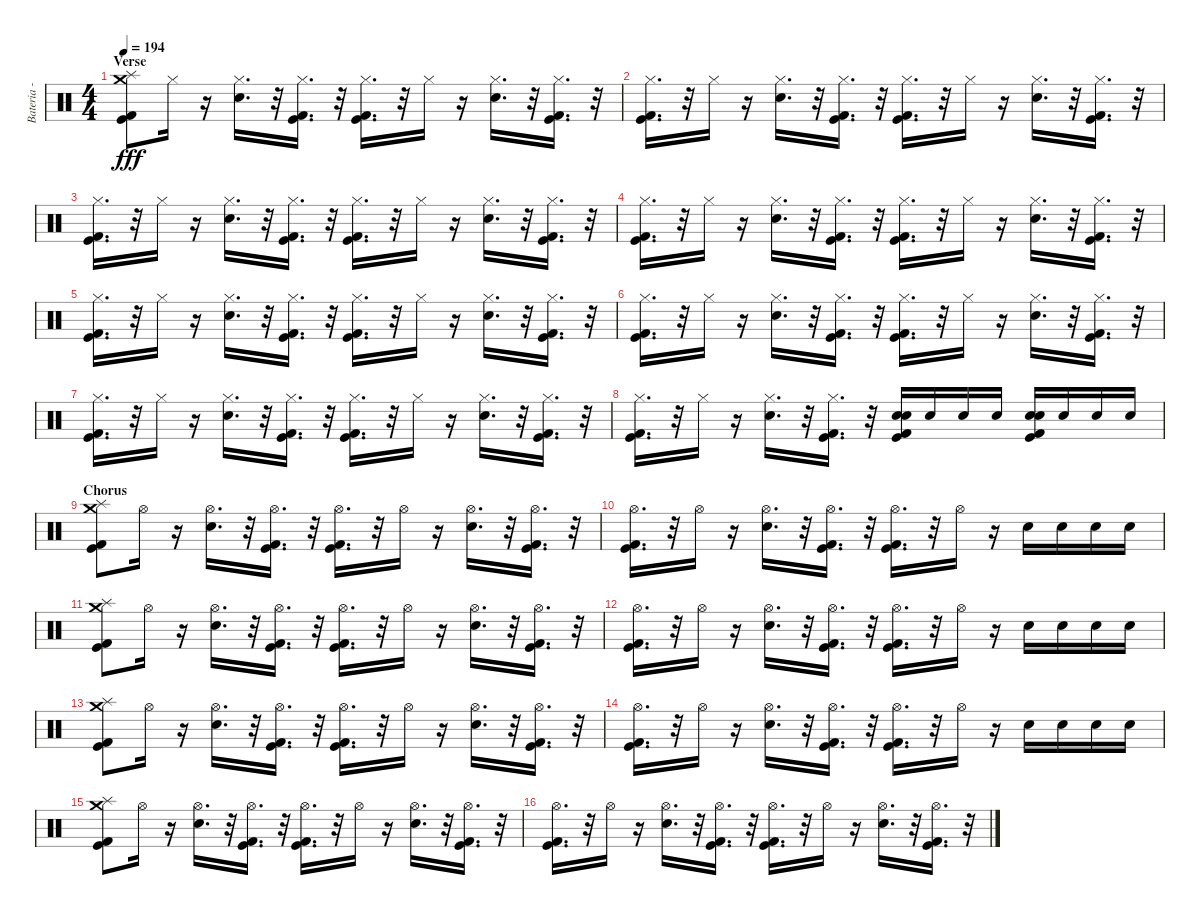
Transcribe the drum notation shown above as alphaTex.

\track ("Bateria - Larzon" "Bateria - ") {instrument percussion}
\staff {score}
\articulation defaults
\ts (4 4)
\section ("" "Verse")
\tempo 194
\clef neutral
\ks c
("Kick (hit)" "Kick (hit) 2" "Splash (hit)" "Crash medium (hit)").8{dy fff} "Hi-Hat (closed)".16 r.16 ("Hi-Hat (closed)" "Electric Snare (hit)").16{d} r.32 ("Hi-Hat (closed)" "Kick (hit)" "Kick (hit) 2").16{d} r.32 ("Kick (hit)" "Kick (hit) 2" "Hi-Hat (closed)").16{d} r.32 "Hi-Hat (closed)".16 r.16 ("Hi-Hat (closed)" "Electric Snare (hit)").16{d} r.32 ("Hi-Hat (closed)" "Kick (hit)" "Kick (hit) 2").16{d} r.32 |
("Kick (hit)" "Kick (hit) 2" "Hi-Hat (closed)").16{d} r.32 "Hi-Hat (closed)".16 r.16 ("Hi-Hat (closed)" "Electric Snare (hit)").16{d} r.32 ("Hi-Hat (closed)" "Kick (hit)" "Kick (hit) 2").16{d} r.32 ("Kick (hit)" "Kick (hit) 2" "Hi-Hat (closed)").16{d} r.32 "Hi-Hat (closed)".16 r.16 ("Hi-Hat (closed)" "Electric Snare (hit)").16{d} r.32 ("Hi-Hat (closed)" "Kick (hit)" "Kick (hit) 2").16{d} r.32 |
("Kick (hit)" "Kick (hit) 2" "Hi-Hat (closed)").16{d} r.32 "Hi-Hat (closed)".16 r.16 ("Hi-Hat (closed)" "Electric Snare (hit)").16{d} r.32 ("Hi-Hat (closed)" "Kick (hit)" "Kick (hit) 2").16{d} r.32 ("Kick (hit)" "Kick (hit) 2" "Hi-Hat (closed)").16{d} r.32 "Hi-Hat (closed)".16 r.16 ("Hi-Hat (closed)" "Electric Snare (hit)").16{d} r.32 ("Hi-Hat (closed)" "Kick (hit)" "Kick (hit) 2").16{d} r.32 |
("Kick (hit)" "Kick (hit) 2" "Hi-Hat (closed)").16{d} r.32 "Hi-Hat (closed)".16 r.16 ("Hi-Hat (closed)" "Electric Snare (hit)").16{d} r.32 ("Hi-Hat (closed)" "Kick (hit)" "Kick (hit) 2").16{d} r.32 ("Kick (hit)" "Kick (hit) 2" "Hi-Hat (closed)").16{d} r.32 "Hi-Hat (closed)".16 r.16 ("Hi-Hat (closed)" "Electric Snare (hit)").16{d} r.32 ("Hi-Hat (closed)" "Kick (hit)" "Kick (hit) 2").16{d} r.32 |
("Kick (hit)" "Kick (hit) 2" "Hi-Hat (closed)").16{d} r.32 "Hi-Hat (closed)".16 r.16 ("Hi-Hat (closed)" "Electric Snare (hit)").16{d} r.32 ("Hi-Hat (closed)" "Kick (hit)" "Kick (hit) 2").16{d} r.32 ("Kick (hit)" "Kick (hit) 2" "Hi-Hat (closed)").16{d} r.32 "Hi-Hat (closed)".16 r.16 ("Hi-Hat (closed)" "Electric Snare (hit)").16{d} r.32 ("Hi-Hat (closed)" "Kick (hit)" "Kick (hit) 2").16{d} r.32 |
("Kick (hit)" "Kick (hit) 2" "Hi-Hat (closed)").16{d} r.32 "Hi-Hat (closed)".16 r.16 ("Hi-Hat (closed)" "Electric Snare (hit)").16{d} r.32 ("Hi-Hat (closed)" "Kick (hit)" "Kick (hit) 2").16{d} r.32 ("Kick (hit)" "Kick (hit) 2" "Hi-Hat (closed)").16{d} r.32 "Hi-Hat (closed)".16 r.16 ("Hi-Hat (closed)" "Electric Snare (hit)").16{d} r.32 ("Hi-Hat (closed)" "Kick (hit)" "Kick (hit) 2").16{d} r.32 |
("Kick (hit)" "Kick (hit) 2" "Hi-Hat (closed)").16{d} r.32 "Hi-Hat (closed)".16 r.16 ("Hi-Hat (closed)" "Electric Snare (hit)").16{d} r.32 ("Hi-Hat (closed)" "Kick (hit)" "Kick (hit) 2").16{d} r.32 ("Kick (hit)" "Kick (hit) 2" "Hi-Hat (closed)").16{d} r.32 "Hi-Hat (closed)".16 r.16 ("Hi-Hat (closed)" "Electric Snare (hit)").16{d} r.32 ("Hi-Hat (closed)" "Kick (hit)" "Kick (hit) 2").16{d} r.32 |
("Kick (hit)" "Kick (hit) 2" "Hi-Hat (closed)").16{d} r.32 "Hi-Hat (closed)".16 r.16 ("Hi-Hat (closed)" "Electric Snare (hit)").16{d} r.32 ("Hi-Hat (closed)" "Kick (hit)" "Kick (hit) 2").16{d} r.32 ("Electric Snare (hit)" "Snare (hit) 2" "Kick (hit)" "Kick (hit) 2").16 "Electric Snare (hit)".16 "Electric Snare (hit)".16 "Electric Snare (hit)".16 ("Electric Snare (hit)" "Snare (hit) 2" "Kick (hit)" "Kick (hit) 2").16 "Electric Snare (hit)".16 "Electric Snare (hit)".16 "Electric Snare (hit)".16 |
\section ("" "Chorus")
("Kick (hit) 2" "Kick (hit)" "Splash (hit)" "Crash medium (hit)").8 "Hi-Hat (open)".16 r.16 ("Electric Snare (hit)" "Hi-Hat (open)").16{d} r.32 ("Kick (hit) 2" "Kick (hit)" "Hi-Hat (open)").16{d} r.32 ("Kick (hit)" "Kick (hit) 2" "Hi-Hat (open)").16{d} r.32 "Hi-Hat (open)".16 r.16 ("Electric Snare (hit)" "Hi-Hat (open)").16{d} r.32 ("Kick (hit)" "Kick (hit) 2" "Hi-Hat (open)").16{d} r.32 |
("Kick (hit)" "Kick (hit) 2" "Hi-Hat (open)").16{d} r.32 "Hi-Hat (open)".16 r.16 ("Electric Snare (hit)" "Hi-Hat (open)").16{d} r.32 ("Hi-Hat (open)" "Kick (hit)" "Kick (hit) 2").16{d} r.32 ("Kick (hit)" "Kick (hit) 2" "Hi-Hat (open)").16{d} r.32 "Hi-Hat (open)".16 r.16 "Electric Snare (hit)".16 "Electric Snare (hit)".16 "Electric Snare (hit)".16 "Electric Snare (hit)".16 |
("Kick (hit) 2" "Kick (hit)" "Splash (hit)" "Crash medium (hit)").8 "Hi-Hat (open)".16 r.16 ("Electric Snare (hit)" "Hi-Hat (open)").16{d} r.32 ("Kick (hit) 2" "Kick (hit)" "Hi-Hat (open)").16{d} r.32 ("Kick (hit)" "Kick (hit) 2" "Hi-Hat (open)").16{d} r.32 "Hi-Hat (open)".16 r.16 ("Electric Snare (hit)" "Hi-Hat (open)").16{d} r.32 ("Kick (hit)" "Kick (hit) 2" "Hi-Hat (open)").16{d} r.32 |
("Kick (hit)" "Kick (hit) 2" "Hi-Hat (open)").16{d} r.32 "Hi-Hat (open)".16 r.16 ("Electric Snare (hit)" "Hi-Hat (open)").16{d} r.32 ("Hi-Hat (open)" "Kick (hit)" "Kick (hit) 2").16{d} r.32 ("Kick (hit)" "Kick (hit) 2" "Hi-Hat (open)").16{d} r.32 "Hi-Hat (open)".16 r.16 "Electric Snare (hit)".16 "Electric Snare (hit)".16 "Electric Snare (hit)".16 "Electric Snare (hit)".16 |
("Kick (hit) 2" "Kick (hit)" "Splash (hit)" "Crash medium (hit)").8 "Hi-Hat (open)".16 r.16 ("Electric Snare (hit)" "Hi-Hat (open)").16{d} r.32 ("Kick (hit) 2" "Kick (hit)" "Hi-Hat (open)").16{d} r.32 ("Kick (hit)" "Kick (hit) 2" "Hi-Hat (open)").16{d} r.32 "Hi-Hat (open)".16 r.16 ("Electric Snare (hit)" "Hi-Hat (open)").16{d} r.32 ("Kick (hit)" "Kick (hit) 2" "Hi-Hat (open)").16{d} r.32 |
("Kick (hit)" "Kick (hit) 2" "Hi-Hat (open)").16{d} r.32 "Hi-Hat (open)".16 r.16 ("Electric Snare (hit)" "Hi-Hat (open)").16{d} r.32 ("Hi-Hat (open)" "Kick (hit)" "Kick (hit) 2").16{d} r.32 ("Kick (hit)" "Kick (hit) 2" "Hi-Hat (open)").16{d} r.32 "Hi-Hat (open)".16 r.16 "Electric Snare (hit)".16 "Electric Snare (hit)".16 "Electric Snare (hit)".16 "Electric Snare (hit)".16 |
("Kick (hit) 2" "Kick (hit)" "Splash (hit)" "Crash medium (hit)").8 "Hi-Hat (open)".16 r.16 ("Electric Snare (hit)" "Hi-Hat (open)").16{d} r.32 ("Kick (hit) 2" "Kick (hit)" "Hi-Hat (open)").16{d} r.32 ("Kick (hit)" "Kick (hit) 2" "Hi-Hat (open)").16{d} r.32 "Hi-Hat (open)".16 r.16 ("Electric Snare (hit)" "Hi-Hat (open)").16{d} r.32 ("Kick (hit)" "Kick (hit) 2" "Hi-Hat (open)").16{d} r.32 |
("Kick (hit)" "Kick (hit) 2" "Hi-Hat (open)").16{d} r.32 "Hi-Hat (open)".16 r.16 ("Electric Snare (hit)" "Hi-Hat (open)").16{d} r.32 ("Hi-Hat (open)" "Kick (hit)" "Kick (hit) 2").16{d} r.32 ("Kick (hit)" "Kick (hit) 2" "Hi-Hat (open)").16{d} r.32 "Hi-Hat (open)".16 r.16 ("Hi-Hat (open)" "Electric Snare (hit)").16{d} r.32 ("Hi-Hat (open)" "Kick (hit)" "Kick (hit) 2").16{d} r.32
